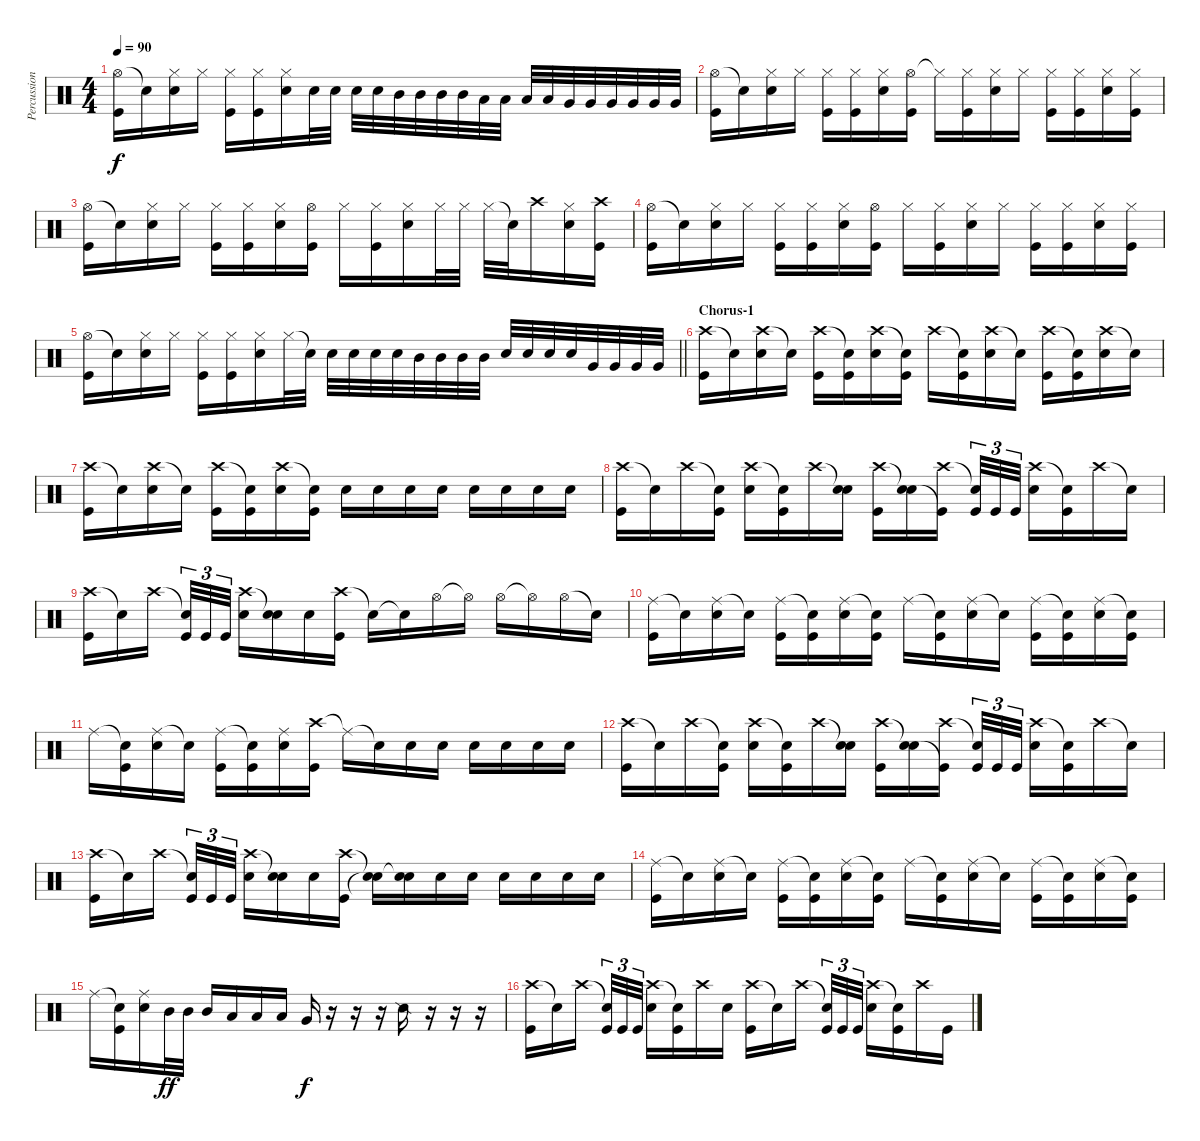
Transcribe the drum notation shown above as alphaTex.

\track ("Percussion" "Percussion") {instrument percussion}
\staff {score}
\articulation defaults
\ts (4 4)
\tempo 90
\clef neutral
\ks c
("Hi-Hat (open)" "Kick (hit)").16{dy f} "Snare (hit)"{t}.16 ("Hi-Hat (closed)" "Electric Snare (hit)").16 "Hi-Hat (closed)".16 ("Hi-Hat (closed)" "Kick (hit)").16 ("Hi-Hat (closed)" "Kick (hit)").16 ("Hi-Hat (closed)" "Electric Snare (hit)").16 "Electric Snare (hit)".32 "Electric Snare (hit)".32 "Electric Snare (hit)".32 "Electric Snare (hit)".32 "Mid Tom (hit)".32 "Mid Tom (hit)".32 "Mid Tom (hit)".32 "Mid Tom (hit)".32 "Low Tom (hit)".32 "Low Tom (hit)".32 "Low Tom (hit)".32 "Low Tom (hit)".32 "Very Low Tom (hit)".32 "Very Low Tom (hit)".32 "Very Low Tom (hit)".32 "Very Low Tom (hit)".32 "Very Low Tom (hit)".32 "Very Low Tom (hit)".32 |
("Hi-Hat (open)" "Kick (hit)").16 "Snare (hit)"{t}.16 ("Hi-Hat (closed)" "Electric Snare (hit)").16 "Hi-Hat (closed)".16 ("Hi-Hat (closed)" "Kick (hit)").16 ("Hi-Hat (closed)" "Kick (hit)").16 ("Hi-Hat (closed)" "Electric Snare (hit)").16 ("Hi-Hat (open)" "Kick (hit)").16 "Hi-Hat (closed)"{t}.16 ("Hi-Hat (closed)" "Kick (hit)").16 ("Hi-Hat (closed)" "Electric Snare (hit)").16 "Hi-Hat (closed)".16 ("Hi-Hat (closed)" "Kick (hit)").16 ("Hi-Hat (closed)" "Kick (hit)").16 ("Hi-Hat (closed)" "Electric Snare (hit)").16 ("Hi-Hat (closed)" "Kick (hit)").16 |
("Hi-Hat (open)" "Kick (hit)").16 "Snare (hit)"{t}.16 ("Hi-Hat (closed)" "Electric Snare (hit)").16 "Hi-Hat (closed)".16 ("Hi-Hat (closed)" "Kick (hit)").16 ("Hi-Hat (closed)" "Kick (hit)").16 ("Hi-Hat (closed)" "Electric Snare (hit)").16 ("Hi-Hat (open)" "Kick (hit)").16 "Hi-Hat (closed)".16 ("Hi-Hat (closed)" "Kick (hit)").16 ("Hi-Hat (closed)" "Electric Snare (hit)").16 "Hi-Hat (closed)".32 "Hi-Hat (closed)".32 "Hi-Hat (closed)".32 "Snare (hit)"{t}.32 "Crash high (hit)".16 ("Hi-Hat (closed)" "Electric Snare (hit)").16 ("Crash high (hit)" "Kick (hit)").16 |
("Hi-Hat (open)" "Kick (hit)").16 "Snare (hit)"{t}.16 ("Hi-Hat (closed)" "Electric Snare (hit)").16 "Hi-Hat (closed)".16 ("Hi-Hat (closed)" "Kick (hit)").16 ("Hi-Hat (closed)" "Kick (hit)").16 ("Hi-Hat (closed)" "Electric Snare (hit)").16 ("Hi-Hat (open)" "Kick (hit)").16 "Hi-Hat (closed)".16 ("Hi-Hat (closed)" "Kick (hit)").16 ("Hi-Hat (closed)" "Electric Snare (hit)").16 "Hi-Hat (closed)".16 ("Hi-Hat (closed)" "Kick (hit)").16 ("Hi-Hat (closed)" "Kick (hit)").16 ("Hi-Hat (closed)" "Electric Snare (hit)").16 ("Hi-Hat (closed)" "Kick (hit)").16 |
\barLineRight lightlight
("Hi-Hat (open)" "Kick (hit)").16 "Snare (hit)"{t}.16 ("Hi-Hat (closed)" "Electric Snare (hit)").16 "Hi-Hat (closed)".16 ("Hi-Hat (closed)" "Kick (hit)").16 ("Hi-Hat (closed)" "Kick (hit)").16 ("Hi-Hat (closed)" "Electric Snare (hit)").16 "Hi-Hat (closed)".32 "Snare (hit)"{t}.32 "Electric Snare (hit)".32 "Electric Snare (hit)".32 "Electric Snare (hit)".32 "Electric Snare (hit)".32 "Mid Tom (hit)".32 "Mid Tom (hit)".32 "Mid Tom (hit)".32 "Mid Tom (hit)".32 "Electric Snare (hit)".32 "Electric Snare (hit)".32 "Electric Snare (hit)".32 "Electric Snare (hit)".32 "Very Low Tom (hit)".32 "Very Low Tom (hit)".32 "Very Low Tom (hit)".32 "Very Low Tom (hit)".32 |
\section ("" "Chorus-1")
("Crash high (hit)" "Kick (hit)").16 "Snare (hit)"{t}.16 ("Crash high (hit)" "Electric Snare (hit)").16 "Snare (hit)"{t}.16 ("Crash high (hit)" "Kick (hit)").16 ("Snare (hit)"{t} "Kick (hit)").16 ("Crash high (hit)" "Electric Snare (hit)").16 ("Snare (hit)"{t} "Kick (hit)").16 "Crash high (hit)".16 ("Snare (hit)"{t} "Kick (hit)").16 ("Crash high (hit)" "Electric Snare (hit)").16 "Snare (hit)"{t}.16 ("Crash high (hit)" "Kick (hit)").16 ("Snare (hit)"{t} "Kick (hit)").16 ("Crash high (hit)" "Electric Snare (hit)").16 "Snare (hit)"{t}.16 |
("Crash high (hit)" "Kick (hit)").16 "Snare (hit)"{t}.16 ("Crash high (hit)" "Electric Snare (hit)").16 "Snare (hit)"{t}.16 ("Crash high (hit)" "Kick (hit)").16 ("Snare (hit)"{t} "Kick (hit)").16 ("Crash high (hit)" "Electric Snare (hit)").16 ("Snare (hit)"{t} "Kick (hit)").16 "Electric Snare (hit)".16 "Electric Snare (hit)".16 "Electric Snare (hit)".16 "Electric Snare (hit)".16 "Electric Snare (hit)".16 "Electric Snare (hit)".16 "Electric Snare (hit)".16 "Electric Snare (hit)".16 |
("Crash high (hit)" "Kick (hit)").16 "Snare (hit)"{t}.16 "Crash high (hit)".16 ("Snare (hit)"{t} "Kick (hit)").16 ("Crash high (hit)" "Electric Snare (hit)").16 ("Snare (hit)"{t} "Kick (hit)").16 "Crash high (hit)".16 ("Snare (hit)"{t} "Electric Snare (hit)").16 ("Crash high (hit)" "Kick (hit)").16 ("Snare (hit)"{t} "Electric Snare (hit)").16 ("Crash high (hit)" "Kick (hit)"{t}).16 ("Snare (hit)"{t} "Kick (hit)").32{tu (3 2)} "Kick (hit)".32{tu (3 2)} "Kick (hit)".32{tu (3 2)} ("Crash high (hit)" "Electric Snare (hit)").16 ("Snare (hit)"{t} "Kick (hit)").16 "Crash high (hit)".16 "Snare (hit)"{t}.16 |
("Crash high (hit)" "Kick (hit)").16 "Snare (hit)"{t}.16 "Crash high (hit)".16 ("Snare (hit)"{t} "Kick (hit)").32{tu (3 2)} "Kick (hit)".32{tu (3 2)} "Kick (hit)".32{tu (3 2)} ("Crash high (hit)" "Electric Snare (hit)").16 ("Snare (hit)"{t} "Electric Snare (hit)").16 "Electric Snare (hit)".16 ("Crash high (hit)" "Kick (hit)").16 "Snare (hit)"{t}.16 "Snare (hit)"{t}.16 "Hi-Hat (open)".16 "Hi-Hat (open)"{t}.16 "Hi-Hat (open)".16 "Hi-Hat (open)"{t}.16 "Hi-Hat (open)".16 "Snare (hit)"{t}.16 |
("Ride (middle)" "Kick (hit)").16 "Snare (hit)"{t}.16 ("Ride (middle)" "Electric Snare (hit)").16 "Snare (hit)"{t}.16 ("Ride (middle)" "Kick (hit)").16 ("Snare (hit)"{t} "Kick (hit)").16 ("Ride (middle)" "Electric Snare (hit)").16 ("Snare (hit)"{t} "Kick (hit)").16 "Ride (middle)".16 ("Snare (hit)"{t} "Kick (hit)").16 ("Ride (middle)" "Electric Snare (hit)").16 "Snare (hit)"{t}.16 ("Ride (middle)" "Kick (hit)").16 ("Snare (hit)"{t} "Kick (hit)").16 ("Ride (middle)" "Electric Snare (hit)").16 ("Snare (hit)"{t} "Kick (hit)").16 |
"Ride (middle)".16 ("Snare (hit)"{t} "Kick (hit)").16 ("Ride (middle)" "Electric Snare (hit)").16 "Snare (hit)"{t}.16 ("Ride (middle)" "Kick (hit)").16 ("Snare (hit)"{t} "Kick (hit)").16 ("Ride (middle)" "Electric Snare (hit)").16 ("Crash high (hit)" "Kick (hit)").16 "Ride (middle)"{t}.16 "Electric Snare (hit)"{t}.16 "Electric Snare (hit)".16 "Electric Snare (hit)".16 "Electric Snare (hit)".16 "Electric Snare (hit)".16 "Electric Snare (hit)".16 "Electric Snare (hit)".16 |
("Crash high (hit)" "Kick (hit)").16 "Snare (hit)"{t}.16 "Crash high (hit)".16 ("Snare (hit)"{t} "Kick (hit)").16 ("Crash high (hit)" "Electric Snare (hit)").16 ("Snare (hit)"{t} "Kick (hit)").16 "Crash high (hit)".16 ("Snare (hit)"{t} "Electric Snare (hit)").16 ("Crash high (hit)" "Kick (hit)").16 ("Snare (hit)"{t} "Electric Snare (hit)").16 ("Crash high (hit)" "Kick (hit)"{t}).16 ("Snare (hit)"{t} "Kick (hit)").32{tu (3 2)} "Kick (hit)".32{tu (3 2)} "Kick (hit)".32{tu (3 2)} ("Crash high (hit)" "Electric Snare (hit)").16 ("Snare (hit)"{t} "Kick (hit)").16 "Crash high (hit)".16 "Snare (hit)"{t}.16 |
("Crash high (hit)" "Kick (hit)").16 "Snare (hit)"{t}.16 "Crash high (hit)".16 ("Snare (hit)"{t} "Kick (hit)").32{tu (3 2)} "Kick (hit)".32{tu (3 2)} "Kick (hit)".32{tu (3 2)} ("Crash high (hit)" "Electric Snare (hit)").16 ("Snare (hit)"{t} "Electric Snare (hit)").16 "Electric Snare (hit)".16 ("Crash high (hit)" "Kick (hit)").16 ("Snare (hit)"{t} "Electric Snare (hit)"{t}).16 ("Snare (hit)"{t} "Electric Snare (hit)").16 "Electric Snare (hit)".16 "Electric Snare (hit)".16 "Electric Snare (hit)".16 "Electric Snare (hit)".16 "Electric Snare (hit)".16 "Electric Snare (hit)".16 |
("Ride (middle)" "Kick (hit)").16 "Snare (hit)"{t}.16 ("Ride (middle)" "Electric Snare (hit)").16 "Snare (hit)"{t}.16 ("Ride (middle)" "Kick (hit)").16 ("Snare (hit)"{t} "Kick (hit)").16 ("Ride (middle)" "Electric Snare (hit)").16 ("Snare (hit)"{t} "Kick (hit)").16 "Ride (middle)".16 ("Snare (hit)"{t} "Kick (hit)").16 ("Ride (middle)" "Electric Snare (hit)").16 "Snare (hit)"{t}.16 ("Ride (middle)" "Kick (hit)").16 ("Snare (hit)"{t} "Kick (hit)").16 ("Ride (middle)" "Electric Snare (hit)").16 ("Snare (hit)"{t} "Kick (hit)").16 |
"Ride (middle)".16 ("Snare (hit)"{t} "Kick (hit)").16 ("Ride (middle)" "Electric Snare (hit)").16 "Mid Tom (hit)".32{dy ff} "Mid Tom (hit)".32 "Mid Tom (hit)".16 "Low Tom (hit)".16 "Low Tom (hit)".16 "Low Tom (hit)".16 "Very Low Tom (hit)".16{dy f} r.16 r.16 r.16 "Snare (side stick) 2".16 r.16 r.16 r.16 |
("Crash high (hit)" "Kick (hit)").16 "Snare (hit)"{t}.16 "Crash high (hit)".16 ("Snare (hit)"{t} "Kick (hit)").32{tu (3 2)} "Kick (hit)".32{tu (3 2)} "Kick (hit)".32{tu (3 2)} ("Crash high (hit)" "Electric Snare (hit)").16 ("Snare (hit)"{t} "Kick (hit)").16 "Crash high (hit)".16 "Electric Snare (hit)".16 ("Crash high (hit)" "Kick (hit)").16 "Snare (hit)"{t}.16 "Crash high (hit)".16 ("Snare (hit)"{t} "Kick (hit)").32{tu (3 2)} "Kick (hit)".32{tu (3 2)} "Kick (hit)".32{tu (3 2)} ("Crash high (hit)" "Electric Snare (hit)").16 ("Snare (hit)"{t} "Kick (hit)").16 "Crash high (hit)".16 "Kick (hit)".16
